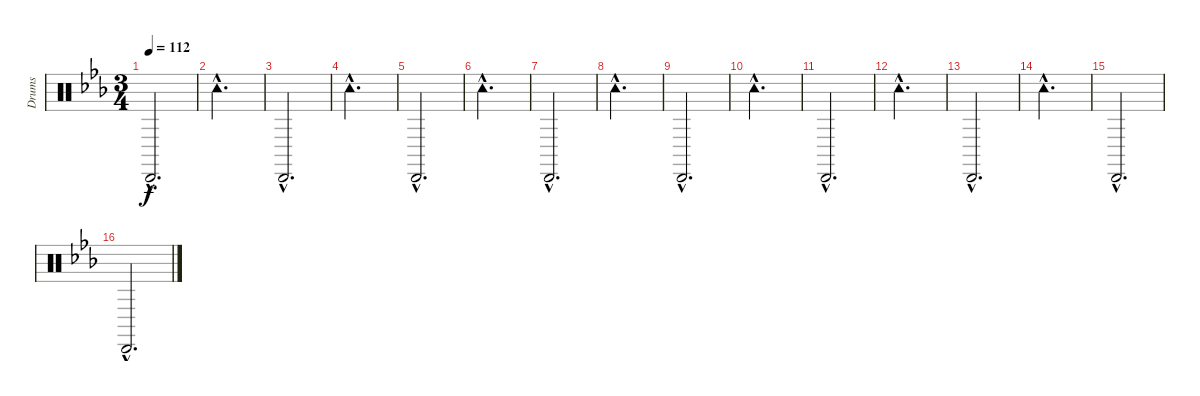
\track ("Drums" "Drums") {instrument percussion}
\staff {score}
\articulation defaults
\ts (3 4)
\tempo 112
\clef neutral
\ks cminor "Cabasa (hit)"{hac}.2{d dy f}
|
"Tambourine (hit)"{hac}.2{d} |
"Cabasa (hit)"{hac}.2{d} |
"Tambourine (hit)"{hac}.2{d} |
"Cabasa (hit)"{hac}.2{d} |
"Tambourine (hit)"{hac}.2{d} |
"Cabasa (hit)"{hac}.2{d} |
"Tambourine (hit)"{hac}.2{d} |
"Cabasa (hit)"{hac}.2{d} |
"Tambourine (hit)"{hac}.2{d} |
"Cabasa (hit)"{hac}.2{d} |
"Tambourine (hit)"{hac}.2{d} |
"Cabasa (hit)"{hac}.2{d} |
"Tambourine (hit)"{hac}.2{d} |
"Cabasa (hit)"{hac}.2{d} |
"Cabasa (hit)"{hac}.2{d}
